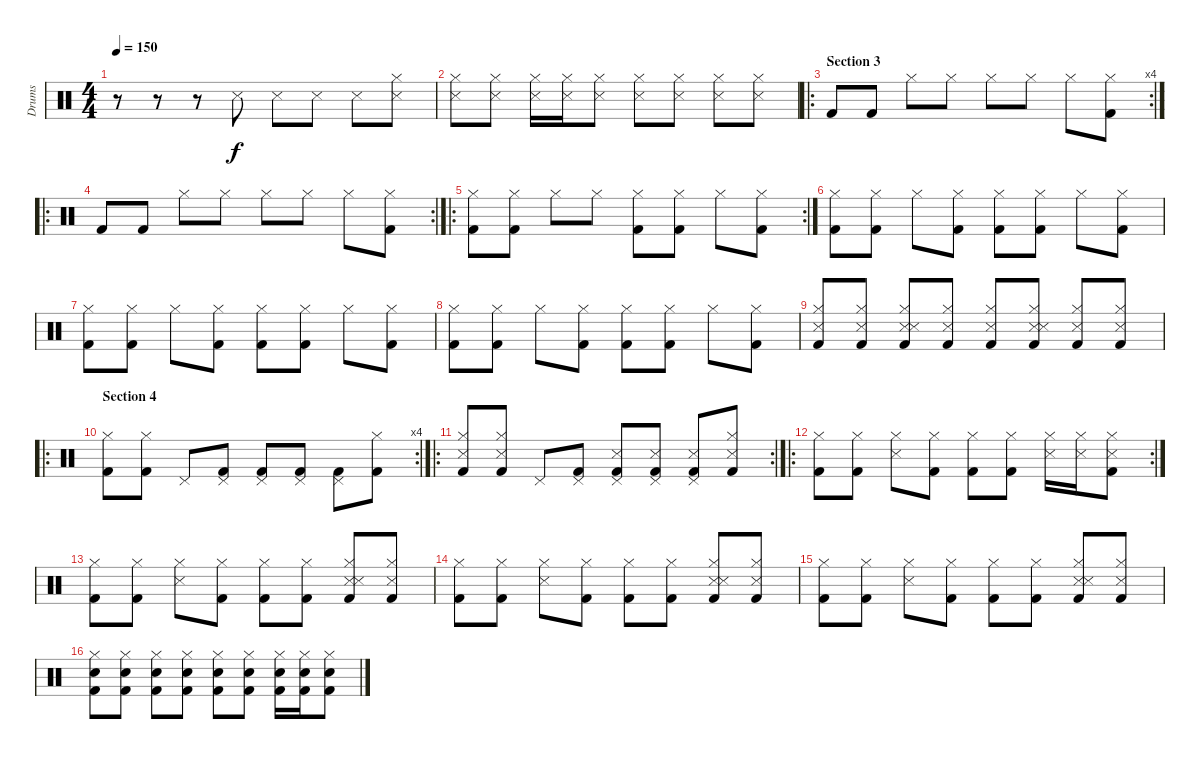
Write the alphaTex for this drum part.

\track ("Drums" "Drums") {instrument percussion}
\staff {score}
\articulation defaults
\ts (4 4)
\tempo 150
\clef neutral
\ks c
r.8{dy f} r.8 r.8 "Snare (side stick) 3".8 "Snare (side stick) 3".8 "Snare (side stick) 3".8 "Snare (side stick) 3".8 ("Hi-Hat (closed)" "Snare (side stick) 3").8 |
("Hi-Hat (closed)" "Snare (side stick) 3").8 ("Hi-Hat (closed)" "Snare (side stick) 3").8 ("Hi-Hat (closed)" "Snare (side stick) 3").16 ("Hi-Hat (closed)" "Snare (side stick) 3").16 ("Hi-Hat (closed)" "Snare (side stick) 3").8 ("Hi-Hat (closed)" "Snare (side stick) 3").8 ("Hi-Hat (closed)" "Snare (side stick) 3").8 ("Hi-Hat (closed)" "Snare (side stick) 3").8 ("Hi-Hat (closed)" "Snare (side stick) 3").8 |
\ro
\rc 4
\section ("" "Section 3")
"Kick (hit) 2".8 "Kick (hit) 2".8 "Hi-Hat (closed)".8 "Hi-Hat (closed)".8 "Hi-Hat (closed)".8 "Hi-Hat (closed)".8 "Hi-Hat (closed)".8 ("Hi-Hat (closed)" "Kick (hit) 2").8 |
\ro
\rc 2 "Kick (hit) 2".8 "Kick (hit) 2".8 "Hi-Hat (closed)".8 "Hi-Hat (closed)".8 "Hi-Hat (closed)".8 "Hi-Hat (closed)".8 "Hi-Hat (closed)".8
("Hi-Hat (closed)" "Kick (hit) 2").8 |
\ro
\rc 2
("Hi-Hat (closed)" "Kick (hit) 2").8 ("Hi-Hat (closed)" "Kick (hit) 2").8 "Hi-Hat (closed)".8 "Hi-Hat (closed)".8 ("Hi-Hat (closed)" "Kick (hit) 2").8 ("Hi-Hat (closed)" "Kick (hit) 2").8 "Hi-Hat (closed)".8 ("Hi-Hat (closed)" "Kick (hit) 2").8 |
("Hi-Hat (closed)" "Kick (hit) 2").8 ("Hi-Hat (closed)" "Kick (hit) 2").8 "Hi-Hat (closed)".8 ("Hi-Hat (closed)" "Kick (hit) 2").8 ("Hi-Hat (closed)" "Kick (hit) 2").8 ("Hi-Hat (closed)" "Kick (hit) 2").8 "Hi-Hat (closed)".8 ("Hi-Hat (closed)" "Kick (hit) 2").8 |
("Hi-Hat (closed)" "Kick (hit) 2").8 ("Hi-Hat (closed)" "Kick (hit) 2").8 "Hi-Hat (closed)".8 ("Hi-Hat (closed)" "Kick (hit) 2").8 ("Hi-Hat (closed)" "Kick (hit) 2").8 ("Hi-Hat (closed)" "Kick (hit) 2").8 "Hi-Hat (closed)".8 ("Hi-Hat (closed)" "Kick (hit) 2").8 |
("Hi-Hat (closed)" "Kick (hit) 2").8 ("Hi-Hat (closed)" "Kick (hit) 2").8 "Hi-Hat (closed)".8 ("Hi-Hat (closed)" "Kick (hit) 2").8 ("Hi-Hat (closed)" "Kick (hit) 2").8 ("Hi-Hat (closed)" "Kick (hit) 2").8 "Hi-Hat (closed)".8 ("Hi-Hat (closed)" "Kick (hit) 2").8 |
("Hi-Hat (closed)" "Snare (side stick) 3" "Kick (hit) 2").8 ("Hi-Hat (closed)" "Snare (side stick) 3" "Kick (hit) 2").8 ("Hi-Hat (closed)" "Snare (side stick) 3" "Snare (side stick) 3" "Kick (hit) 2").8 ("Hi-Hat (closed)" "Snare (side stick) 3" "Kick (hit) 2").8 ("Hi-Hat (closed)" "Snare (side stick) 3" "Kick (hit) 2").8 ("Hi-Hat (closed)" "Snare (side stick) 3" "Snare (side stick) 3" "Kick (hit) 2").8 ("Hi-Hat (closed)" "Snare (side stick) 3" "Kick (hit) 2").8 ("Hi-Hat (closed)" "Snare (side stick) 3" "Kick (hit) 2").8 |
\ro
\rc 4
\section ("" "Section 4")
("Hi-Hat (closed)" "Kick (hit) 2").8 ("Hi-Hat (closed)" "Kick (hit) 2").8 "Pedal Hi-Hat (hit)".8 ("Pedal Hi-Hat (hit)" "Kick (hit) 2").8 ("Pedal Hi-Hat (hit)" "Kick (hit) 2").8 ("Pedal Hi-Hat (hit)" "Kick (hit) 2").8 ("Pedal Hi-Hat (hit)" "Kick (hit) 2").8 ("Hi-Hat (closed)" "Kick (hit) 2").8 |
\ro
\rc 2
("Hi-Hat (closed)" "Snare (side stick) 3" "Kick (hit) 2").8 ("Hi-Hat (closed)" "Snare (side stick) 3" "Kick (hit) 2").8 "Pedal Hi-Hat (hit)".8 ("Pedal Hi-Hat (hit)" "Kick (hit) 2").8 ("Pedal Hi-Hat (hit)" "Snare (side stick) 3" "Kick (hit) 2").8 ("Pedal Hi-Hat (hit)" "Snare (side stick) 3" "Kick (hit) 2").8 ("Pedal Hi-Hat (hit)" "Snare (side stick) 3" "Kick (hit) 2").8 ("Hi-Hat (closed)" "Snare (side stick) 3" "Kick (hit) 2").8 |
\ro
\rc 2
("Hi-Hat (closed)" "Kick (hit) 2").8 ("Hi-Hat (closed)" "Kick (hit) 2").8 ("Hi-Hat (closed)" "Snare (side stick) 3").8 ("Hi-Hat (closed)" "Kick (hit) 2").8 ("Hi-Hat (closed)" "Kick (hit) 2").8 ("Hi-Hat (closed)" "Kick (hit) 2").8 ("Hi-Hat (closed)" "Snare (side stick) 3").16 ("Hi-Hat (closed)" "Snare (side stick) 3").16 ("Hi-Hat (closed)" "Snare (side stick) 3" "Kick (hit) 2").8 |
("Hi-Hat (closed)" "Kick (hit) 2").8 ("Hi-Hat (closed)" "Kick (hit) 2").8 ("Hi-Hat (closed)" "Snare (side stick) 3").8 ("Hi-Hat (closed)" "Kick (hit) 2").8 ("Hi-Hat (closed)" "Kick (hit) 2").8 ("Hi-Hat (closed)" "Kick (hit) 2").8 ("Hi-Hat (closed)" "Snare (side stick) 3" "Snare (side stick) 3" "Kick (hit) 2").8 ("Hi-Hat (closed)" "Snare (side stick) 3" "Kick (hit) 2").8 |
("Hi-Hat (closed)" "Kick (hit) 2").8 ("Hi-Hat (closed)" "Kick (hit) 2").8 ("Hi-Hat (closed)" "Snare (side stick) 3").8 ("Hi-Hat (closed)" "Kick (hit) 2").8 ("Hi-Hat (closed)" "Kick (hit) 2").8 ("Hi-Hat (closed)" "Kick (hit) 2").8 ("Hi-Hat (closed)" "Snare (side stick) 3" "Snare (side stick) 3" "Kick (hit) 2").8 ("Hi-Hat (closed)" "Snare (side stick) 3" "Kick (hit) 2").8 |
("Hi-Hat (closed)" "Kick (hit) 2").8 ("Hi-Hat (closed)" "Kick (hit) 2").8 ("Hi-Hat (closed)" "Snare (side stick) 3").8 ("Hi-Hat (closed)" "Kick (hit) 2").8 ("Hi-Hat (closed)" "Kick (hit) 2").8 ("Hi-Hat (closed)" "Kick (hit) 2").8 ("Hi-Hat (closed)" "Snare (side stick) 3" "Snare (side stick) 3" "Kick (hit) 2").8 ("Hi-Hat (closed)" "Snare (side stick) 3" "Kick (hit) 2").8 |
("Hi-Hat (closed)" "Electric Snare (hit)" "Kick (hit) 2").8 ("Hi-Hat (closed)" "Electric Snare (hit)" "Kick (hit) 2").8 ("Hi-Hat (closed)" "Electric Snare (hit)" "Kick (hit) 2").8 ("Hi-Hat (closed)" "Electric Snare (hit)" "Kick (hit) 2").8 ("Hi-Hat (closed)" "Electric Snare (hit)" "Kick (hit) 2").8 ("Hi-Hat (closed)" "Electric Snare (hit)" "Kick (hit) 2").8 ("Hi-Hat (closed)" "Electric Snare (hit)" "Kick (hit) 2").16 ("Hi-Hat (closed)" "Electric Snare (hit)" "Kick (hit) 2").16 ("Hi-Hat (closed)" "Electric Snare (hit)" "Kick (hit) 2").8
